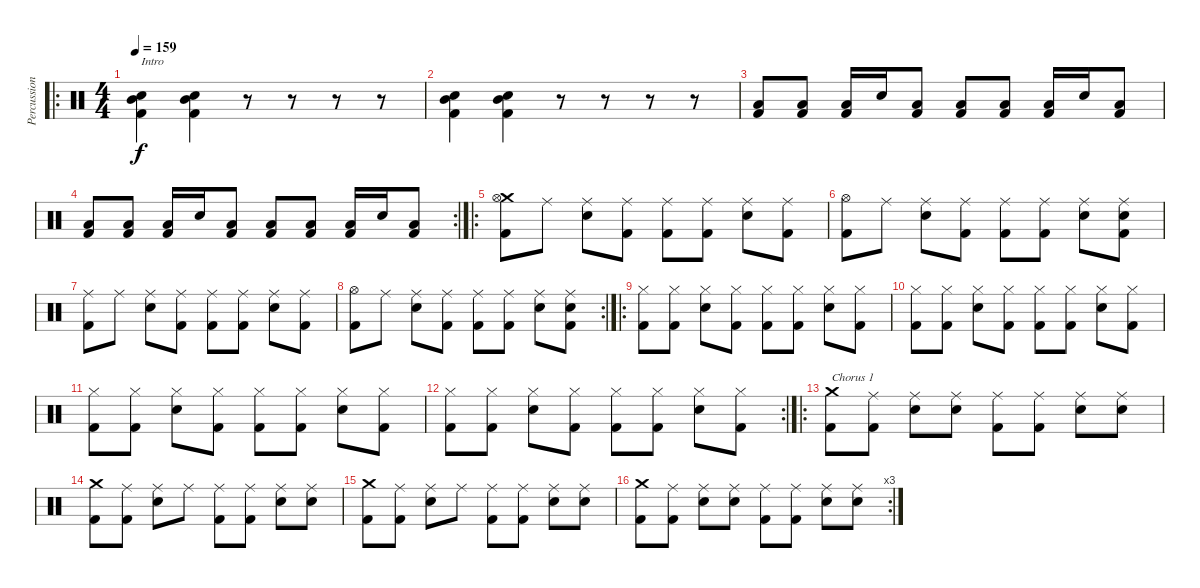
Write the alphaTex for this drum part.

\track ("Percussion" "Percussion") {instrument percussion}
\staff {score}
\articulation defaults
\ro
\ts (4 4)
\tempo 159
\clef neutral
\ks c
("Mid Tom (hit)" "Kick (hit) 2" "Electric Snare (hit)").4{txt "Intro " dy f} ("Mid Tom (hit)" "Kick (hit) 2" "Electric Snare (hit)").4 r.8 r.8 r.8 r.8 |
("Mid Tom (hit)" "Kick (hit) 2" "Electric Snare (hit)").4 ("Mid Tom (hit)" "Kick (hit) 2" "Electric Snare (hit)").4 r.8 r.8 r.8 r.8 |
("Kick (hit) 2" "Low Tom (hit)").8 ("Kick (hit) 2" "Low Tom (hit)").8 ("Kick (hit) 2" "Low Tom (hit)").16 "Electric Snare (hit)".16 ("Kick (hit) 2" "Low Tom (hit)").8 ("Kick (hit) 2" "Low Tom (hit)").8 ("Kick (hit) 2" "Low Tom (hit)").8 ("Kick (hit) 2" "Low Tom (hit)").16 "Electric Snare (hit)".16 ("Kick (hit) 2" "Low Tom (hit)").8 |
\rc 2
("Kick (hit) 2" "Low Tom (hit)").8 ("Kick (hit) 2" "Low Tom (hit)").8 ("Kick (hit) 2" "Low Tom (hit)").16 "Electric Snare (hit)".16 ("Kick (hit) 2" "Low Tom (hit)").8 ("Kick (hit) 2" "Low Tom (hit)").8 ("Kick (hit) 2" "Low Tom (hit)").8 ("Kick (hit) 2" "Low Tom (hit)").16 "Electric Snare (hit)".16 ("Kick (hit) 2" "Low Tom (hit)").8 |
\ro
("Crash medium (hit)" "Kick (hit) 2" "Hi-Hat (open)").8 "Ride (middle)".8 ("Electric Snare (hit)" "Ride (middle)").8 ("Kick (hit) 2" "Ride (middle)").8 ("Kick (hit) 2" "Ride (middle)").8 ("Kick (hit) 2" "Ride (middle)").8 ("Electric Snare (hit)" "Ride (middle)").8 ("Kick (hit) 2" "Ride (middle)").8 |
("Kick (hit) 2" "Hi-Hat (open)").8 "Ride (middle)".8 ("Electric Snare (hit)" "Ride (middle)").8 ("Kick (hit) 2" "Ride (middle)").8 ("Kick (hit) 2" "Ride (middle)").8 ("Kick (hit) 2" "Ride (middle)").8 ("Electric Snare (hit)" "Ride (middle)").8 ("Kick (hit) 2" "Electric Snare (hit)" "Ride (middle)").8 |
("Kick (hit) 2" "Ride (middle)").8 "Ride (middle)".8 ("Electric Snare (hit)" "Ride (middle)").8 ("Kick (hit) 2" "Ride (middle)").8 ("Kick (hit) 2" "Ride (middle)").8 ("Kick (hit) 2" "Ride (middle)").8 ("Electric Snare (hit)" "Ride (middle)").8 ("Kick (hit) 2" "Ride (middle)").8 |
\rc 2
("Kick (hit) 2" "Hi-Hat (open)").8 "Ride (middle)".8 ("Electric Snare (hit)" "Ride (middle)").8 ("Kick (hit) 2" "Ride (middle)").8 ("Kick (hit) 2" "Ride (middle)").8 ("Kick (hit) 2" "Ride (middle)").8 ("Electric Snare (hit)" "Ride (middle)").8 ("Kick (hit) 2" "Electric Snare (hit)" "Ride (middle)").8 |
\ro
("Kick (hit) 2" "Hi-Hat (closed)").8 ("Kick (hit) 2" "Hi-Hat (closed)").8 ("Electric Snare (hit)" "Hi-Hat (closed)").8 ("Kick (hit) 2" "Hi-Hat (closed)").8 ("Kick (hit) 2" "Hi-Hat (closed)").8 ("Kick (hit) 2" "Hi-Hat (closed)").8 ("Electric Snare (hit)" "Hi-Hat (closed)").8 ("Kick (hit) 2" "Hi-Hat (closed)").8 |
("Kick (hit) 2" "Hi-Hat (closed)").8 ("Kick (hit) 2" "Hi-Hat (closed)").8 ("Electric Snare (hit)" "Hi-Hat (closed)").8 ("Kick (hit) 2" "Hi-Hat (closed)").8 ("Kick (hit) 2" "Hi-Hat (closed)").8 ("Kick (hit) 2" "Hi-Hat (closed)").8 ("Electric Snare (hit)" "Hi-Hat (closed)").8 ("Kick (hit) 2" "Hi-Hat (closed)").8 |
("Kick (hit) 2" "Hi-Hat (closed)").8 ("Kick (hit) 2" "Hi-Hat (closed)").8 ("Electric Snare (hit)" "Hi-Hat (closed)").8 ("Kick (hit) 2" "Hi-Hat (closed)").8 ("Kick (hit) 2" "Hi-Hat (closed)").8 ("Kick (hit) 2" "Hi-Hat (closed)").8 ("Electric Snare (hit)" "Hi-Hat (closed)").8 ("Kick (hit) 2" "Hi-Hat (closed)").8 |
\rc 2
("Kick (hit) 2" "Hi-Hat (closed)").8 ("Kick (hit) 2" "Hi-Hat (closed)").8 ("Electric Snare (hit)" "Hi-Hat (closed)").8 ("Kick (hit) 2" "Hi-Hat (closed)").8 ("Kick (hit) 2" "Hi-Hat (closed)").8 ("Kick (hit) 2" "Hi-Hat (closed)").8 ("Electric Snare (hit)" "Hi-Hat (closed)").8 ("Kick (hit) 2" "Hi-Hat (closed)").8 |
\ro
("Crash medium (hit)" "Kick (hit) 2").8{txt "Chorus 1"} ("Kick (hit) 2" "Ride (middle)").8 ("Electric Snare (hit)" "Ride (middle)").8 ("Electric Snare (hit)" "Ride (middle)").8 ("Kick (hit) 2" "Ride (middle)").8 ("Kick (hit) 2" "Ride (middle)").8 ("Electric Snare (hit)" "Ride (middle)").8 ("Electric Snare (hit)" "Ride (middle)").8 |
("Crash medium (hit)" "Kick (hit) 2").8 ("Kick (hit) 2" "Ride (middle)").8 ("Electric Snare (hit)" "Ride (middle)").8 "Ride (middle)".8 ("Kick (hit) 2" "Ride (middle)").8 ("Kick (hit) 2" "Ride (middle)").8 ("Electric Snare (hit)" "Ride (middle)").8 ("Electric Snare (hit)" "Ride (middle)").8 |
("Crash medium (hit)" "Kick (hit) 2").8 ("Kick (hit) 2" "Ride (middle)").8 ("Electric Snare (hit)" "Ride (middle)").8 "Ride (middle)".8 ("Kick (hit) 2" "Ride (middle)").8 ("Kick (hit) 2" "Ride (middle)").8 ("Electric Snare (hit)" "Ride (middle)").8 ("Electric Snare (hit)" "Ride (middle)").8 |
\rc 3
("Crash medium (hit)" "Kick (hit) 2").8 ("Kick (hit) 2" "Ride (middle)").8 ("Electric Snare (hit)" "Ride (middle)").8 ("Electric Snare (hit)" "Ride (middle)").8 ("Kick (hit) 2" "Ride (middle)").8 ("Kick (hit) 2" "Ride (middle)").8 ("Electric Snare (hit)" "Ride (middle)").8 ("Electric Snare (hit)" "Ride (middle)").8
